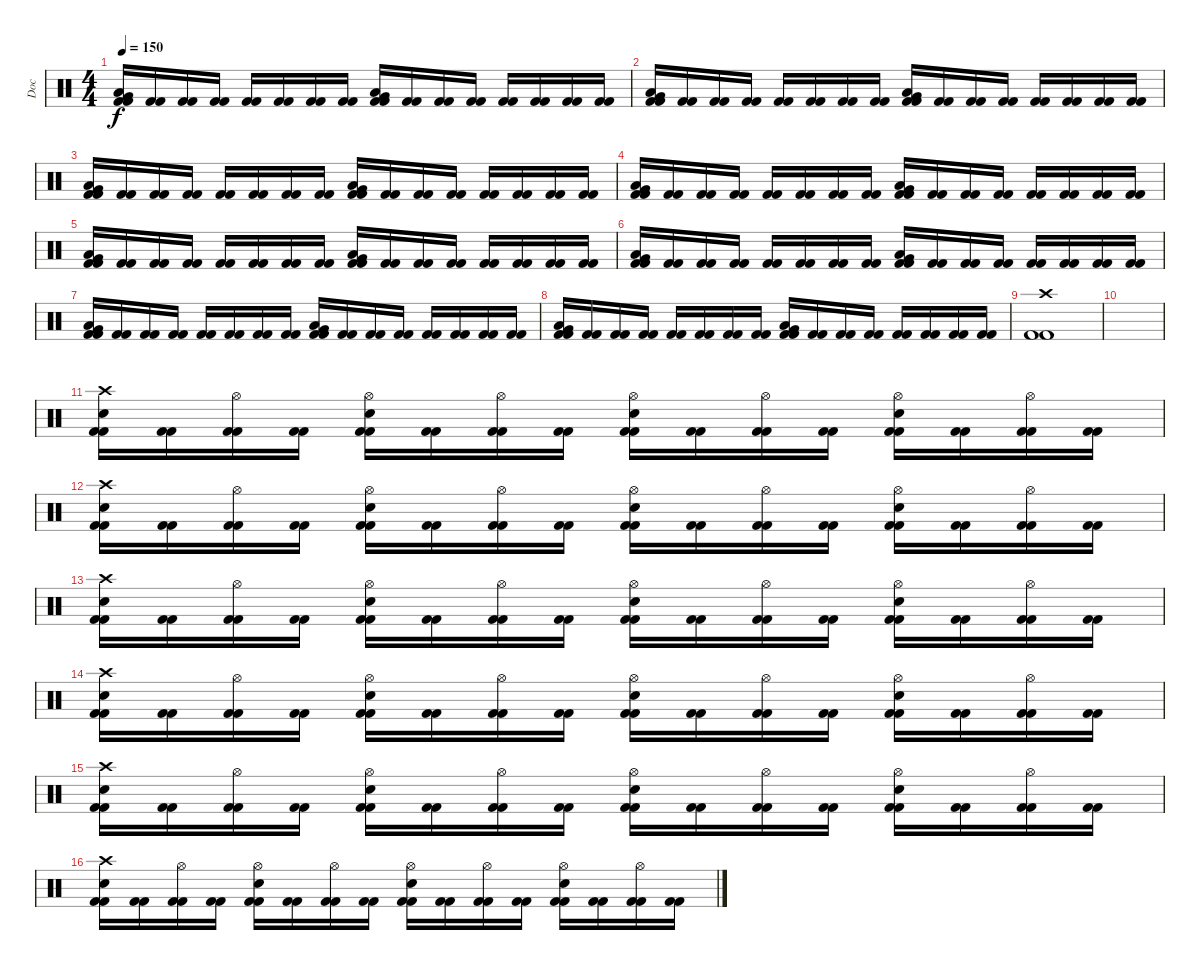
\track ("Doc" "Doc") {instrument percussion}
\staff {score}
\articulation defaults
\ts (4 4)
\tempo 150
\clef neutral
\ks c
("Kick (hit) 2" "Very Low Tom (hit)" "Low Tom (hit)" "Kick (hit) 2").16{dy f} ("Kick (hit) 2" "Kick (hit) 2").16 ("Kick (hit) 2" "Kick (hit) 2").16 ("Kick (hit) 2" "Kick (hit) 2").16 ("Kick (hit) 2" "Kick (hit) 2").16 ("Kick (hit) 2" "Kick (hit) 2").16 ("Kick (hit) 2" "Kick (hit) 2").16 ("Kick (hit) 2" "Kick (hit) 2").16 ("Kick (hit) 2" "Very Low Tom (hit)" "Low Tom (hit)" "Kick (hit) 2").16 ("Kick (hit) 2" "Kick (hit) 2").16 ("Kick (hit) 2" "Kick (hit) 2").16 ("Kick (hit) 2" "Kick (hit) 2").16 ("Kick (hit) 2" "Kick (hit) 2").16 ("Kick (hit) 2" "Kick (hit) 2").16 ("Kick (hit) 2" "Kick (hit) 2").16 ("Kick (hit) 2" "Kick (hit) 2").16 |
("Kick (hit) 2" "Very Low Tom (hit)" "Low Tom (hit)" "Kick (hit) 2").16 ("Kick (hit) 2" "Kick (hit) 2").16 ("Kick (hit) 2" "Kick (hit) 2").16 ("Kick (hit) 2" "Kick (hit) 2").16 ("Kick (hit) 2" "Kick (hit) 2").16 ("Kick (hit) 2" "Kick (hit) 2").16 ("Kick (hit) 2" "Kick (hit) 2").16 ("Kick (hit) 2" "Kick (hit) 2").16 ("Kick (hit) 2" "Very Low Tom (hit)" "Low Tom (hit)" "Kick (hit) 2").16 ("Kick (hit) 2" "Kick (hit) 2").16 ("Kick (hit) 2" "Kick (hit) 2").16 ("Kick (hit) 2" "Kick (hit) 2").16 ("Kick (hit) 2" "Kick (hit) 2").16 ("Kick (hit) 2" "Kick (hit) 2").16 ("Kick (hit) 2" "Kick (hit) 2").16 ("Kick (hit) 2" "Kick (hit) 2").16 |
("Kick (hit) 2" "Very Low Tom (hit)" "Low Tom (hit)" "Kick (hit) 2").16 ("Kick (hit) 2" "Kick (hit) 2").16 ("Kick (hit) 2" "Kick (hit) 2").16 ("Kick (hit) 2" "Kick (hit) 2").16 ("Kick (hit) 2" "Kick (hit) 2").16 ("Kick (hit) 2" "Kick (hit) 2").16 ("Kick (hit) 2" "Kick (hit) 2").16 ("Kick (hit) 2" "Kick (hit) 2").16 ("Kick (hit) 2" "Very Low Tom (hit)" "Low Tom (hit)" "Kick (hit) 2").16 ("Kick (hit) 2" "Kick (hit) 2").16 ("Kick (hit) 2" "Kick (hit) 2").16 ("Kick (hit) 2" "Kick (hit) 2").16 ("Kick (hit) 2" "Kick (hit) 2").16 ("Kick (hit) 2" "Kick (hit) 2").16 ("Kick (hit) 2" "Kick (hit) 2").16 ("Kick (hit) 2" "Kick (hit) 2").16 |
("Kick (hit) 2" "Very Low Tom (hit)" "Low Tom (hit)" "Kick (hit) 2").16 ("Kick (hit) 2" "Kick (hit) 2").16 ("Kick (hit) 2" "Kick (hit) 2").16 ("Kick (hit) 2" "Kick (hit) 2").16 ("Kick (hit) 2" "Kick (hit) 2").16 ("Kick (hit) 2" "Kick (hit) 2").16 ("Kick (hit) 2" "Kick (hit) 2").16 ("Kick (hit) 2" "Kick (hit) 2").16 ("Kick (hit) 2" "Very Low Tom (hit)" "Low Tom (hit)" "Kick (hit) 2").16 ("Kick (hit) 2" "Kick (hit) 2").16 ("Kick (hit) 2" "Kick (hit) 2").16 ("Kick (hit) 2" "Kick (hit) 2").16 ("Kick (hit) 2" "Kick (hit) 2").16 ("Kick (hit) 2" "Kick (hit) 2").16 ("Kick (hit) 2" "Kick (hit) 2").16 ("Kick (hit) 2" "Kick (hit) 2").16 |
("Kick (hit) 2" "Very Low Tom (hit)" "Low Tom (hit)" "Kick (hit) 2").16 ("Kick (hit) 2" "Kick (hit) 2").16 ("Kick (hit) 2" "Kick (hit) 2").16 ("Kick (hit) 2" "Kick (hit) 2").16 ("Kick (hit) 2" "Kick (hit) 2").16 ("Kick (hit) 2" "Kick (hit) 2").16 ("Kick (hit) 2" "Kick (hit) 2").16 ("Kick (hit) 2" "Kick (hit) 2").16 ("Kick (hit) 2" "Very Low Tom (hit)" "Low Tom (hit)" "Kick (hit) 2").16 ("Kick (hit) 2" "Kick (hit) 2").16 ("Kick (hit) 2" "Kick (hit) 2").16 ("Kick (hit) 2" "Kick (hit) 2").16 ("Kick (hit) 2" "Kick (hit) 2").16 ("Kick (hit) 2" "Kick (hit) 2").16 ("Kick (hit) 2" "Kick (hit) 2").16 ("Kick (hit) 2" "Kick (hit) 2").16 |
("Kick (hit) 2" "Very Low Tom (hit)" "Low Tom (hit)" "Kick (hit) 2").16 ("Kick (hit) 2" "Kick (hit) 2").16 ("Kick (hit) 2" "Kick (hit) 2").16 ("Kick (hit) 2" "Kick (hit) 2").16 ("Kick (hit) 2" "Kick (hit) 2").16 ("Kick (hit) 2" "Kick (hit) 2").16 ("Kick (hit) 2" "Kick (hit) 2").16 ("Kick (hit) 2" "Kick (hit) 2").16 ("Kick (hit) 2" "Very Low Tom (hit)" "Low Tom (hit)" "Kick (hit) 2").16 ("Kick (hit) 2" "Kick (hit) 2").16 ("Kick (hit) 2" "Kick (hit) 2").16 ("Kick (hit) 2" "Kick (hit) 2").16 ("Kick (hit) 2" "Kick (hit) 2").16 ("Kick (hit) 2" "Kick (hit) 2").16 ("Kick (hit) 2" "Kick (hit) 2").16 ("Kick (hit) 2" "Kick (hit) 2").16 |
("Kick (hit) 2" "Very Low Tom (hit)" "Low Tom (hit)" "Kick (hit) 2").16 ("Kick (hit) 2" "Kick (hit) 2").16 ("Kick (hit) 2" "Kick (hit) 2").16 ("Kick (hit) 2" "Kick (hit) 2").16 ("Kick (hit) 2" "Kick (hit) 2").16 ("Kick (hit) 2" "Kick (hit) 2").16 ("Kick (hit) 2" "Kick (hit) 2").16 ("Kick (hit) 2" "Kick (hit) 2").16 ("Kick (hit) 2" "Very Low Tom (hit)" "Low Tom (hit)" "Kick (hit) 2").16 ("Kick (hit) 2" "Kick (hit) 2").16 ("Kick (hit) 2" "Kick (hit) 2").16 ("Kick (hit) 2" "Kick (hit) 2").16 ("Kick (hit) 2" "Kick (hit) 2").16 ("Kick (hit) 2" "Kick (hit) 2").16 ("Kick (hit) 2" "Kick (hit) 2").16 ("Kick (hit) 2" "Kick (hit) 2").16 |
("Kick (hit) 2" "Very Low Tom (hit)" "Low Tom (hit)" "Kick (hit) 2").16 ("Kick (hit) 2" "Kick (hit) 2").16 ("Kick (hit) 2" "Kick (hit) 2").16 ("Kick (hit) 2" "Kick (hit) 2").16 ("Kick (hit) 2" "Kick (hit) 2").16 ("Kick (hit) 2" "Kick (hit) 2").16 ("Kick (hit) 2" "Kick (hit) 2").16 ("Kick (hit) 2" "Kick (hit) 2").16 ("Kick (hit) 2" "Very Low Tom (hit)" "Low Tom (hit)" "Kick (hit) 2").16 ("Kick (hit) 2" "Kick (hit) 2").16 ("Kick (hit) 2" "Kick (hit) 2").16 ("Kick (hit) 2" "Kick (hit) 2").16 ("Kick (hit) 2" "Kick (hit) 2").16 ("Kick (hit) 2" "Kick (hit) 2").16 ("Kick (hit) 2" "Kick (hit) 2").16 ("Kick (hit) 2" "Kick (hit) 2").16 |
("Crash high (hit)" "Kick (hit) 2" "Kick (hit) 2").1 |
|
("Kick (hit) 2" "Crash high (hit)" "Electric Snare (hit)" "Kick (hit) 2").16 ("Kick (hit) 2" "Kick (hit) 2").16 ("Kick (hit) 2" "Hi-Hat (open)" "Kick (hit) 2").16 ("Kick (hit) 2" "Kick (hit) 2").16 ("Kick (hit) 2" "Hi-Hat (open)" "Electric Snare (hit)" "Kick (hit) 2").16 ("Kick (hit) 2" "Kick (hit) 2").16 ("Kick (hit) 2" "Hi-Hat (open)" "Kick (hit) 2").16 ("Kick (hit) 2" "Kick (hit) 2").16 ("Kick (hit) 2" "Hi-Hat (open)" "Electric Snare (hit)" "Kick (hit) 2").16 ("Kick (hit) 2" "Kick (hit) 2").16 ("Kick (hit) 2" "Hi-Hat (open)" "Kick (hit) 2").16 ("Kick (hit) 2" "Kick (hit) 2").16 ("Kick (hit) 2" "Hi-Hat (open)" "Electric Snare (hit)" "Kick (hit) 2").16 ("Kick (hit) 2" "Kick (hit) 2").16 ("Kick (hit) 2" "Hi-Hat (open)" "Kick (hit) 2").16 ("Kick (hit) 2" "Kick (hit) 2").16 |
("Kick (hit) 2" "Crash high (hit)" "Electric Snare (hit)" "Kick (hit) 2").16 ("Kick (hit) 2" "Kick (hit) 2").16 ("Kick (hit) 2" "Hi-Hat (open)" "Kick (hit) 2").16 ("Kick (hit) 2" "Kick (hit) 2").16 ("Kick (hit) 2" "Hi-Hat (open)" "Electric Snare (hit)" "Kick (hit) 2").16 ("Kick (hit) 2" "Kick (hit) 2").16 ("Kick (hit) 2" "Hi-Hat (open)" "Kick (hit) 2").16 ("Kick (hit) 2" "Kick (hit) 2").16 ("Kick (hit) 2" "Hi-Hat (open)" "Electric Snare (hit)" "Kick (hit) 2").16 ("Kick (hit) 2" "Kick (hit) 2").16 ("Kick (hit) 2" "Hi-Hat (open)" "Kick (hit) 2").16 ("Kick (hit) 2" "Kick (hit) 2").16 ("Kick (hit) 2" "Hi-Hat (open)" "Electric Snare (hit)" "Kick (hit) 2").16 ("Kick (hit) 2" "Kick (hit) 2").16 ("Kick (hit) 2" "Hi-Hat (open)" "Kick (hit) 2").16 ("Kick (hit) 2" "Kick (hit) 2").16 |
("Kick (hit) 2" "Crash high (hit)" "Electric Snare (hit)" "Kick (hit) 2").16 ("Kick (hit) 2" "Kick (hit) 2").16 ("Kick (hit) 2" "Hi-Hat (open)" "Kick (hit) 2").16 ("Kick (hit) 2" "Kick (hit) 2").16 ("Kick (hit) 2" "Hi-Hat (open)" "Electric Snare (hit)" "Kick (hit) 2").16 ("Kick (hit) 2" "Kick (hit) 2").16 ("Kick (hit) 2" "Hi-Hat (open)" "Kick (hit) 2").16 ("Kick (hit) 2" "Kick (hit) 2").16 ("Kick (hit) 2" "Hi-Hat (open)" "Electric Snare (hit)" "Kick (hit) 2").16 ("Kick (hit) 2" "Kick (hit) 2").16 ("Kick (hit) 2" "Hi-Hat (open)" "Kick (hit) 2").16 ("Kick (hit) 2" "Kick (hit) 2").16 ("Kick (hit) 2" "Hi-Hat (open)" "Electric Snare (hit)" "Kick (hit) 2").16 ("Kick (hit) 2" "Kick (hit) 2").16 ("Kick (hit) 2" "Hi-Hat (open)" "Kick (hit) 2").16 ("Kick (hit) 2" "Kick (hit) 2").16 |
("Kick (hit) 2" "Crash high (hit)" "Electric Snare (hit)" "Kick (hit) 2").16 ("Kick (hit) 2" "Kick (hit) 2").16 ("Kick (hit) 2" "Hi-Hat (open)" "Kick (hit) 2").16 ("Kick (hit) 2" "Kick (hit) 2").16 ("Kick (hit) 2" "Hi-Hat (open)" "Electric Snare (hit)" "Kick (hit) 2").16 ("Kick (hit) 2" "Kick (hit) 2").16 ("Kick (hit) 2" "Hi-Hat (open)" "Kick (hit) 2").16 ("Kick (hit) 2" "Kick (hit) 2").16 ("Kick (hit) 2" "Hi-Hat (open)" "Electric Snare (hit)" "Kick (hit) 2").16 ("Kick (hit) 2" "Kick (hit) 2").16 ("Kick (hit) 2" "Hi-Hat (open)" "Kick (hit) 2").16 ("Kick (hit) 2" "Kick (hit) 2").16 ("Kick (hit) 2" "Hi-Hat (open)" "Electric Snare (hit)" "Kick (hit) 2").16 ("Kick (hit) 2" "Kick (hit) 2").16 ("Kick (hit) 2" "Hi-Hat (open)" "Kick (hit) 2").16 ("Kick (hit) 2" "Kick (hit) 2").16 |
("Kick (hit) 2" "Crash high (hit)" "Electric Snare (hit)" "Kick (hit) 2").16 ("Kick (hit) 2" "Kick (hit) 2").16 ("Kick (hit) 2" "Hi-Hat (open)" "Kick (hit) 2").16 ("Kick (hit) 2" "Kick (hit) 2").16 ("Kick (hit) 2" "Hi-Hat (open)" "Electric Snare (hit)" "Kick (hit) 2").16 ("Kick (hit) 2" "Kick (hit) 2").16 ("Kick (hit) 2" "Hi-Hat (open)" "Kick (hit) 2").16 ("Kick (hit) 2" "Kick (hit) 2").16 ("Kick (hit) 2" "Hi-Hat (open)" "Electric Snare (hit)" "Kick (hit) 2").16 ("Kick (hit) 2" "Kick (hit) 2").16 ("Kick (hit) 2" "Hi-Hat (open)" "Kick (hit) 2").16 ("Kick (hit) 2" "Kick (hit) 2").16 ("Kick (hit) 2" "Hi-Hat (open)" "Electric Snare (hit)" "Kick (hit) 2").16 ("Kick (hit) 2" "Kick (hit) 2").16 ("Kick (hit) 2" "Hi-Hat (open)" "Kick (hit) 2").16 ("Kick (hit) 2" "Kick (hit) 2").16 |
("Kick (hit) 2" "Crash high (hit)" "Electric Snare (hit)" "Kick (hit) 2").16 ("Kick (hit) 2" "Kick (hit) 2").16 ("Kick (hit) 2" "Hi-Hat (open)" "Kick (hit) 2").16 ("Kick (hit) 2" "Kick (hit) 2").16 ("Kick (hit) 2" "Hi-Hat (open)" "Electric Snare (hit)" "Kick (hit) 2").16 ("Kick (hit) 2" "Kick (hit) 2").16 ("Kick (hit) 2" "Hi-Hat (open)" "Kick (hit) 2").16 ("Kick (hit) 2" "Kick (hit) 2").16 ("Kick (hit) 2" "Hi-Hat (open)" "Electric Snare (hit)" "Kick (hit) 2").16 ("Kick (hit) 2" "Kick (hit) 2").16 ("Kick (hit) 2" "Hi-Hat (open)" "Kick (hit) 2").16 ("Kick (hit) 2" "Kick (hit) 2").16 ("Kick (hit) 2" "Hi-Hat (open)" "Electric Snare (hit)" "Kick (hit) 2").16 ("Kick (hit) 2" "Kick (hit) 2").16 ("Kick (hit) 2" "Hi-Hat (open)" "Kick (hit) 2").16 ("Kick (hit) 2" "Kick (hit) 2").16
